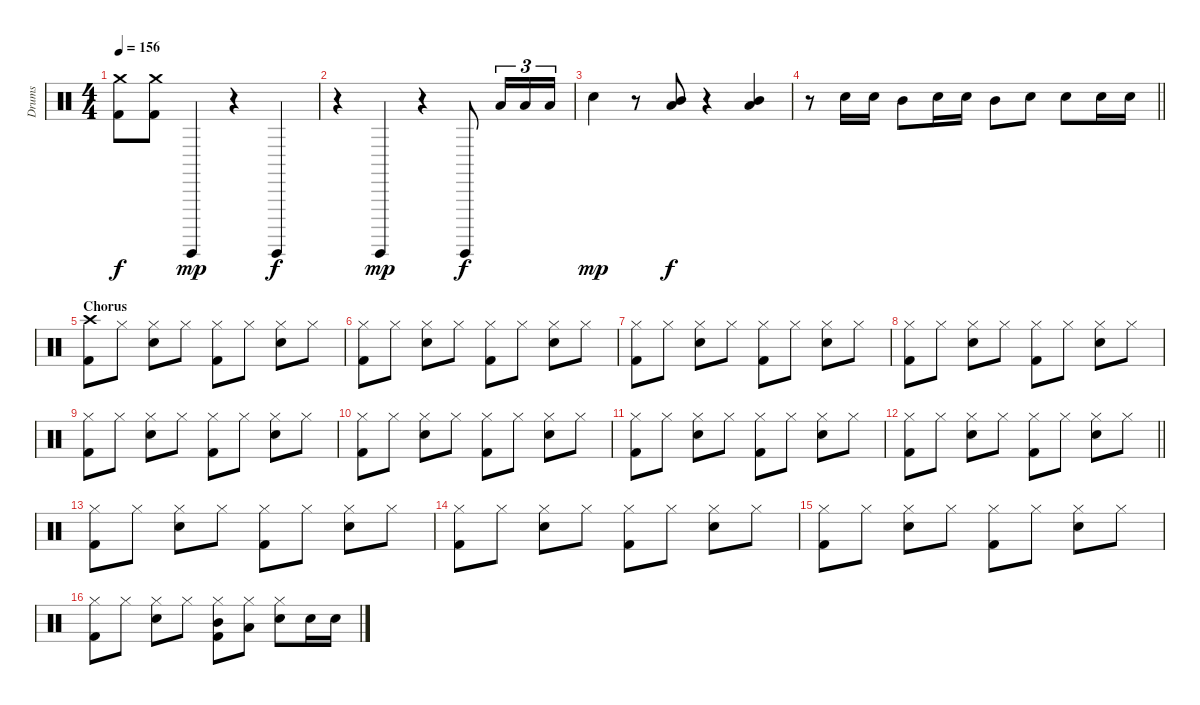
\track ("Drums" "Drums") {instrument percussion}
\staff {score}
\articulation defaults
\ts (4 4)
\tempo 156
\clef neutral
\ks c
("Crash medium (hit)" "Kick (hit) 2").8{dy f} ("Crash medium (hit)" "Kick (hit) 2").8 "Guiro (hit)".4{dy mp} r.4 "Guiro (hit)".4{dy f} |
r.4 "Guiro (hit)".4{dy mp} r.4 "Guiro (hit)".8{dy f} "Low Tom (hit)".16{tu (3 2)} "Low Tom (hit)".16{tu (3 2)} "Low Tom (hit)".16{tu (3 2)} |
"Electric Snare (hit)".4{dy mp} r.8 ("Mid Tom (hit)" "Low Tom (hit)").8{dy f} r.4 ("Mid Tom (hit)" "Low Tom (hit)").4 |
\barLineRight lightlight
r.8 "Electric Snare (hit)".16 "Electric Snare (hit)".16 "Mid Tom (hit)".8 "Electric Snare (hit)".16 "Electric Snare (hit)".16 "Mid Tom (hit)".8 "Electric Snare (hit)".8 "Electric Snare (hit)".8 "Electric Snare (hit)".16 "Electric Snare (hit)".16 |
\section ("" "Chorus")
("Crash high (hit)" "Kick (hit) 2").8 "Hi-Hat (closed)".8 ("Hi-Hat (closed)" "Electric Snare (hit)").8 "Hi-Hat (closed)".8 ("Hi-Hat (closed)" "Kick (hit) 2").8 "Hi-Hat (closed)".8 ("Hi-Hat (closed)" "Electric Snare (hit)").8 "Hi-Hat (closed)".8 |
("Hi-Hat (closed)" "Kick (hit) 2").8 "Hi-Hat (closed)".8 ("Hi-Hat (closed)" "Electric Snare (hit)").8 "Hi-Hat (closed)".8 ("Hi-Hat (closed)" "Kick (hit) 2").8 "Hi-Hat (closed)".8 ("Hi-Hat (closed)" "Electric Snare (hit)").8 "Hi-Hat (closed)".8 |
("Hi-Hat (closed)" "Kick (hit) 2").8 "Hi-Hat (closed)".8 ("Hi-Hat (closed)" "Electric Snare (hit)").8 "Hi-Hat (closed)".8 ("Hi-Hat (closed)" "Kick (hit) 2").8 "Hi-Hat (closed)".8 ("Hi-Hat (closed)" "Electric Snare (hit)").8 "Hi-Hat (closed)".8 |
("Hi-Hat (closed)" "Kick (hit) 2").8 "Hi-Hat (closed)".8 ("Hi-Hat (closed)" "Electric Snare (hit)").8 "Hi-Hat (closed)".8 ("Hi-Hat (closed)" "Kick (hit) 2").8 "Hi-Hat (closed)".8 ("Hi-Hat (closed)" "Electric Snare (hit)").8 "Hi-Hat (closed)".8 |
("Hi-Hat (closed)" "Kick (hit) 2").8 "Hi-Hat (closed)".8 ("Hi-Hat (closed)" "Electric Snare (hit)").8 "Hi-Hat (closed)".8 ("Hi-Hat (closed)" "Kick (hit) 2").8 "Hi-Hat (closed)".8 ("Hi-Hat (closed)" "Electric Snare (hit)").8 "Hi-Hat (closed)".8 |
("Hi-Hat (closed)" "Kick (hit) 2").8 "Hi-Hat (closed)".8 ("Hi-Hat (closed)" "Electric Snare (hit)").8 "Hi-Hat (closed)".8 ("Hi-Hat (closed)" "Kick (hit) 2").8 "Hi-Hat (closed)".8 ("Hi-Hat (closed)" "Electric Snare (hit)").8 "Hi-Hat (closed)".8 |
("Hi-Hat (closed)" "Kick (hit) 2").8 "Hi-Hat (closed)".8 ("Hi-Hat (closed)" "Electric Snare (hit)").8 "Hi-Hat (closed)".8 ("Hi-Hat (closed)" "Kick (hit) 2").8 "Hi-Hat (closed)".8 ("Hi-Hat (closed)" "Electric Snare (hit)").8 "Hi-Hat (closed)".8 |
\barLineRight lightlight
("Hi-Hat (closed)" "Kick (hit) 2").8 "Hi-Hat (closed)".8 ("Hi-Hat (closed)" "Electric Snare (hit)").8 "Hi-Hat (closed)".8 ("Hi-Hat (closed)" "Kick (hit) 2").8 "Hi-Hat (closed)".8 ("Hi-Hat (closed)" "Electric Snare (hit)").8 "Hi-Hat (closed)".8 |
("Hi-Hat (closed)" "Kick (hit) 2").8 "Hi-Hat (closed)".8 ("Hi-Hat (closed)" "Electric Snare (hit)").8 "Hi-Hat (closed)".8 ("Hi-Hat (closed)" "Kick (hit) 2").8 "Hi-Hat (closed)".8 ("Hi-Hat (closed)" "Electric Snare (hit)").8 "Hi-Hat (closed)".8 |
("Hi-Hat (closed)" "Kick (hit) 2").8 "Hi-Hat (closed)".8 ("Hi-Hat (closed)" "Electric Snare (hit)").8 "Hi-Hat (closed)".8 ("Hi-Hat (closed)" "Kick (hit) 2").8 "Hi-Hat (closed)".8 ("Hi-Hat (closed)" "Electric Snare (hit)").8 "Hi-Hat (closed)".8 |
("Hi-Hat (closed)" "Kick (hit) 2").8 "Hi-Hat (closed)".8 ("Hi-Hat (closed)" "Electric Snare (hit)").8 "Hi-Hat (closed)".8 ("Hi-Hat (closed)" "Kick (hit) 2").8 "Hi-Hat (closed)".8 ("Hi-Hat (closed)" "Electric Snare (hit)").8 "Hi-Hat (closed)".8 |
("Hi-Hat (closed)" "Kick (hit) 2").8 "Hi-Hat (closed)".8 ("Hi-Hat (closed)" "Electric Snare (hit)").8 "Hi-Hat (closed)".8 ("Hi-Hat (closed)" "Mid Tom (hit)" "Kick (hit) 2").8 ("Hi-Hat (closed)" "Low Tom (hit)").8 ("Hi-Hat (closed)" "Electric Snare (hit)").8 "Electric Snare (hit)".16 "Electric Snare (hit)".16
